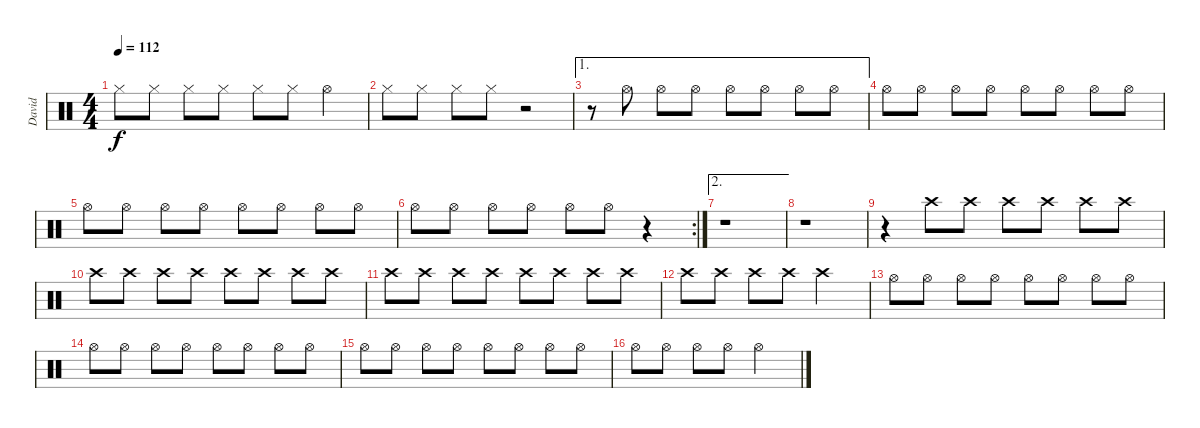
\track ("David" "David") {instrument percussion}
\staff {score}
\articulation defaults
\ts (4 4)
\tempo 112
\clef neutral
\ks c "Hi-Hat (closed)".8{dy f} "Hi-Hat (closed)".8 "Hi-Hat (closed)".8 "Hi-Hat (closed)".8 "Hi-Hat (closed)".8 "Hi-Hat (closed)".8 "Hi-Hat (open)".4
|
"Hi-Hat (closed)".8 "Hi-Hat (closed)".8 "Hi-Hat (closed)".8 "Hi-Hat (closed)".8 r.2 |
\ae 1
r.8 "Hi-Hat (open)".8 "Hi-Hat (open)".8 "Hi-Hat (open)".8 "Hi-Hat (open)".8 "Hi-Hat (open)".8 "Hi-Hat (open)".8 "Hi-Hat (open)".8 |
"Hi-Hat (open)".8 "Hi-Hat (open)".8 "Hi-Hat (open)".8 "Hi-Hat (open)".8 "Hi-Hat (open)".8 "Hi-Hat (open)".8 "Hi-Hat (open)".8 "Hi-Hat (open)".8 |
"Hi-Hat (open)".8 "Hi-Hat (open)".8 "Hi-Hat (open)".8 "Hi-Hat (open)".8 "Hi-Hat (open)".8 "Hi-Hat (open)".8 "Hi-Hat (open)".8 "Hi-Hat (open)".8 |
\rc 2 "Hi-Hat (open)".8 "Hi-Hat (open)".8 "Hi-Hat (open)".8 "Hi-Hat (open)".8 "Hi-Hat (open)".8 "Hi-Hat (open)".8
r.4 |
\ae 2
r.1 |
r.1 |
r.4 "Crash high (hit)".8 "Crash high (hit)".8 "Crash high (hit)".8 "Crash high (hit)".8 "Crash high (hit)".8 "Crash high (hit)".8 |
"Crash high (hit)".8 "Crash high (hit)".8 "Crash high (hit)".8 "Crash high (hit)".8 "Crash high (hit)".8 "Crash high (hit)".8 "Crash high (hit)".8 "Crash high (hit)".8 |
"Crash high (hit)".8 "Crash high (hit)".8 "Crash high (hit)".8 "Crash high (hit)".8 "Crash high (hit)".8 "Crash high (hit)".8 "Crash high (hit)".8 "Crash high (hit)".8 |
"Crash high (hit)".8 "Crash high (hit)".8 "Crash high (hit)".8 "Crash high (hit)".8 "Crash high (hit)".2 |
"Hi-Hat (open)".8 "Hi-Hat (open)".8 "Hi-Hat (open)".8 "Hi-Hat (open)".8 "Hi-Hat (open)".8 "Hi-Hat (open)".8 "Hi-Hat (open)".8 "Hi-Hat (open)".8 |
"Hi-Hat (open)".8 "Hi-Hat (open)".8 "Hi-Hat (open)".8 "Hi-Hat (open)".8 "Hi-Hat (open)".8 "Hi-Hat (open)".8 "Hi-Hat (open)".8 "Hi-Hat (open)".8 |
"Hi-Hat (open)".8 "Hi-Hat (open)".8 "Hi-Hat (open)".8 "Hi-Hat (open)".8 "Hi-Hat (open)".8 "Hi-Hat (open)".8 "Hi-Hat (open)".8 "Hi-Hat (open)".8 |
"Hi-Hat (open)".8 "Hi-Hat (open)".8 "Hi-Hat (open)".8 "Hi-Hat (open)".8 "Hi-Hat (open)".2
